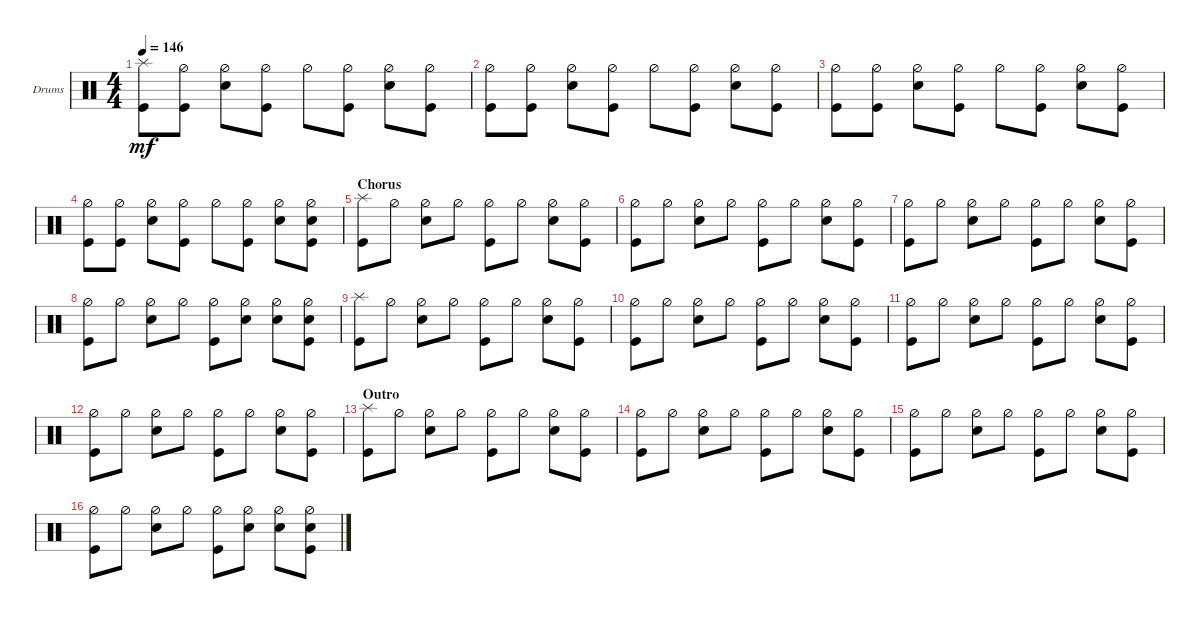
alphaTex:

\defaultSystemsLayout 4
\bracketExtendMode groupsimilarinstruments
\firstSystemTrackNameOrientation horizontal
\otherSystemsTrackNameOrientation horizontal
\track ("Drums" "Drums") {instrument percussion}
\staff {score}
\articulation defaults
\ts (4 4)
\tempo 146
\clef neutral
\ks c
("Kick (hit)" "Splash (hit)").8{dy mf} ("Kick (hit)" "Hi-Hat (half)").8 ("Snare (hit) 2" "Hi-Hat (half)").8 ("Kick (hit)" "Hi-Hat (half)").8 "Hi-Hat (half)".8 ("Kick (hit)" "Hi-Hat (half)").8 ("Snare (hit) 2" "Hi-Hat (half)").8 ("Kick (hit)" "Hi-Hat (half)").8 |
("Kick (hit)" "Hi-Hat (half)").8 ("Kick (hit)" "Hi-Hat (half)").8 ("Snare (hit) 2" "Hi-Hat (half)").8 ("Kick (hit)" "Hi-Hat (half)").8 "Hi-Hat (half)".8 ("Kick (hit)" "Hi-Hat (half)").8 ("Snare (hit) 2" "Hi-Hat (half)").8 ("Kick (hit)" "Hi-Hat (half)").8 |
("Kick (hit)" "Hi-Hat (half)").8 ("Kick (hit)" "Hi-Hat (half)").8 ("Snare (hit) 2" "Hi-Hat (half)").8 ("Kick (hit)" "Hi-Hat (half)").8 "Hi-Hat (half)".8 ("Kick (hit)" "Hi-Hat (half)").8 ("Snare (hit) 2" "Hi-Hat (half)").8 ("Kick (hit)" "Hi-Hat (half)").8 |
("Kick (hit)" "Hi-Hat (half)").8 ("Kick (hit)" "Hi-Hat (half)").8 ("Snare (hit) 2" "Hi-Hat (half)").8 ("Kick (hit)" "Hi-Hat (half)").8 "Hi-Hat (half)".8 ("Kick (hit)" "Hi-Hat (half)").8 ("Snare (hit) 2" "Hi-Hat (half)").8 ("Kick (hit)" "Hi-Hat (half)" "Snare (hit) 2").8 |
\section ("" "Chorus")
("Kick (hit)" "Splash (hit)").8 "Hi-Hat (half)".8 ("Snare (hit) 2" "Hi-Hat (half)").8 "Hi-Hat (half)".8 ("Hi-Hat (half)" "Kick (hit)").8 "Hi-Hat (half)".8 ("Hi-Hat (half)" "Snare (hit) 2").8 ("Hi-Hat (half)" "Kick (hit)").8 |
("Kick (hit)" "Hi-Hat (half)").8 "Hi-Hat (half)".8 ("Snare (hit) 2" "Hi-Hat (half)").8 "Hi-Hat (half)".8 ("Hi-Hat (half)" "Kick (hit)").8 "Hi-Hat (half)".8 ("Hi-Hat (half)" "Snare (hit) 2").8 ("Hi-Hat (half)" "Kick (hit)").8 |
("Kick (hit)" "Hi-Hat (half)").8 "Hi-Hat (half)".8 ("Snare (hit) 2" "Hi-Hat (half)").8 "Hi-Hat (half)".8 ("Hi-Hat (half)" "Kick (hit)").8 "Hi-Hat (half)".8 ("Hi-Hat (half)" "Snare (hit) 2").8 ("Hi-Hat (half)" "Kick (hit)").8 |
("Kick (hit)" "Hi-Hat (half)").8 "Hi-Hat (half)".8 ("Snare (hit) 2" "Hi-Hat (half)").8 "Hi-Hat (half)".8 ("Hi-Hat (half)" "Kick (hit)").8 ("Hi-Hat (half)" "Snare (hit) 2").8 ("Hi-Hat (half)" "Snare (hit) 2").8 ("Hi-Hat (half)" "Kick (hit)" "Snare (hit) 2").8 |
("Kick (hit)" "Splash (hit)").8 "Hi-Hat (half)".8 ("Snare (hit) 2" "Hi-Hat (half)").8 "Hi-Hat (half)".8 ("Hi-Hat (half)" "Kick (hit)").8 "Hi-Hat (half)".8 ("Hi-Hat (half)" "Snare (hit) 2").8 ("Hi-Hat (half)" "Kick (hit)").8 |
("Kick (hit)" "Hi-Hat (half)").8 "Hi-Hat (half)".8 ("Snare (hit) 2" "Hi-Hat (half)").8 "Hi-Hat (half)".8 ("Hi-Hat (half)" "Kick (hit)").8 "Hi-Hat (half)".8 ("Hi-Hat (half)" "Snare (hit) 2").8 ("Hi-Hat (half)" "Kick (hit)").8 |
("Kick (hit)" "Hi-Hat (half)").8 "Hi-Hat (half)".8 ("Snare (hit) 2" "Hi-Hat (half)").8 "Hi-Hat (half)".8 ("Hi-Hat (half)" "Kick (hit)").8 "Hi-Hat (half)".8 ("Hi-Hat (half)" "Snare (hit) 2").8 ("Hi-Hat (half)" "Kick (hit)").8 |
("Kick (hit)" "Hi-Hat (half)").8 "Hi-Hat (half)".8 ("Snare (hit) 2" "Hi-Hat (half)").8 "Hi-Hat (half)".8 ("Hi-Hat (half)" "Kick (hit)").8 "Hi-Hat (half)".8 ("Hi-Hat (half)" "Snare (hit) 2").8 ("Hi-Hat (half)" "Kick (hit)").8 |
\section ("" "Outro")
("Kick (hit)" "Splash (hit)").8 "Hi-Hat (half)".8 ("Snare (hit) 2" "Hi-Hat (half)").8 "Hi-Hat (half)".8 ("Hi-Hat (half)" "Kick (hit)").8 "Hi-Hat (half)".8 ("Hi-Hat (half)" "Snare (hit) 2").8 ("Hi-Hat (half)" "Kick (hit)").8 |
("Kick (hit)" "Hi-Hat (half)").8 "Hi-Hat (half)".8 ("Snare (hit) 2" "Hi-Hat (half)").8 "Hi-Hat (half)".8 ("Hi-Hat (half)" "Kick (hit)").8 "Hi-Hat (half)".8 ("Hi-Hat (half)" "Snare (hit) 2").8 ("Hi-Hat (half)" "Kick (hit)").8 |
("Kick (hit)" "Hi-Hat (half)").8 "Hi-Hat (half)".8 ("Snare (hit) 2" "Hi-Hat (half)").8 "Hi-Hat (half)".8 ("Hi-Hat (half)" "Kick (hit)").8 "Hi-Hat (half)".8 ("Hi-Hat (half)" "Snare (hit) 2").8 ("Hi-Hat (half)" "Kick (hit)").8 |
("Kick (hit)" "Hi-Hat (half)").8 "Hi-Hat (half)".8 ("Snare (hit) 2" "Hi-Hat (half)").8 "Hi-Hat (half)".8 ("Hi-Hat (half)" "Kick (hit)").8 ("Hi-Hat (half)" "Snare (hit) 2").8 ("Hi-Hat (half)" "Snare (hit) 2").8 ("Hi-Hat (half)" "Kick (hit)" "Snare (hit) 2").8
